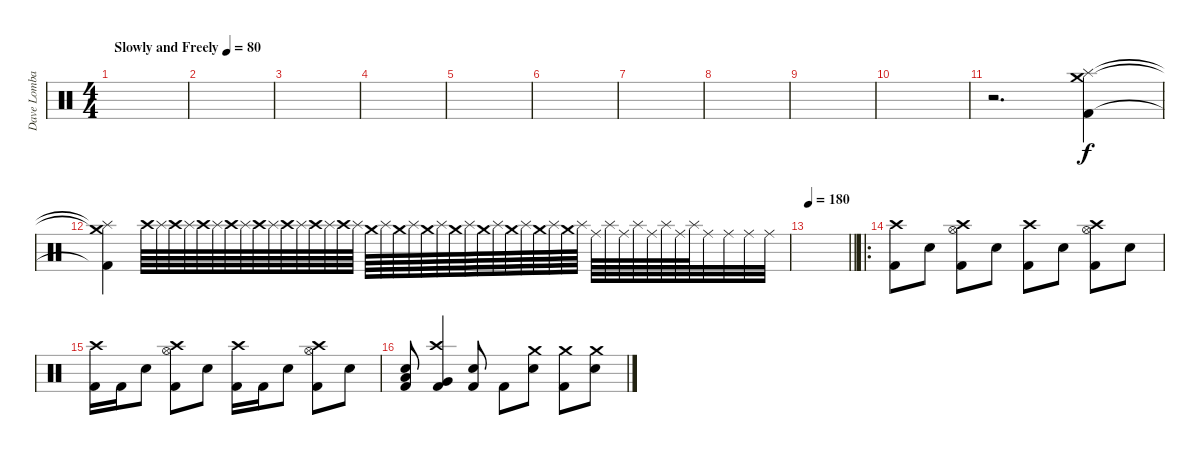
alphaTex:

\track ("Dave Lombardo" "Dave Lomba") {instrument percussion}
\staff {score}
\articulation defaults
\ts (4 4)
\tempo (80 "Slowly and Freely")
\clef neutral
\ks c
|
|
|
|
|
|
|
|
|
|
r.2{d} ("Crash medium (hit)" "Splash (hit)" "Kick (hit) 2").4 |
("Crash medium (hit)"{t} "Splash (hit)"{t} "Kick (hit) 2"{t}).4 "Crash high (hit)".64 "Splash (hit)".64 "Crash high (hit)".64 "Splash (hit)".64 "Crash high (hit)".64 "Splash (hit)".64 "Crash high (hit)".64 "Splash (hit)".64 "Crash high (hit)".64 "Splash (hit)".64 "Crash high (hit)".64 "Splash (hit)".64 "Crash high (hit)".64 "Splash (hit)".64 "Crash high (hit)".64 "Splash (hit)".64 "Crash medium (hit)".64 "Splash (hit)".64 "Crash medium (hit)".64 "Splash (hit)".64 "Crash medium (hit)".64 "Splash (hit)".64 "Crash medium (hit)".64 "Splash (hit)".64 "Crash medium (hit)".64 "Splash (hit)".64 "Crash medium (hit)".64 "Splash (hit)".64 "Crash medium (hit)".64 "Splash (hit)".64 "Crash medium (hit)".64 "Splash (hit)".64 "Ride (middle)".64 "Splash (hit)".64 "Ride (middle)".64 "Splash (hit)".64 "Ride (middle)".64 "Splash (hit)".64 "Ride (middle)".64 "Splash (hit)".64 "Ride (middle)".32 "Ride (middle)".32 "Ride (middle)".32 "Ride (middle)".32 |
\tempo 180
\barLineRight lightlight
|
\ro
("Crash high (hit)" "Kick (hit) 2").8 "Snare (hit) 2".8 ("Crash high (hit)" "Hi-Hat (open)" "Kick (hit) 2").8 "Snare (hit) 2".8 ("Crash high (hit)" "Kick (hit) 2").8 "Snare (hit) 2".8 ("Crash high (hit)" "Hi-Hat (open)" "Kick (hit) 2").8 "Snare (hit) 2".8 |
("Crash high (hit)" "Kick (hit) 2").16 "Kick (hit) 2".16 "Snare (hit) 2".8 ("Crash high (hit)" "Hi-Hat (open)" "Kick (hit) 2").8 "Snare (hit) 2".8 ("Crash high (hit)" "Kick (hit) 2").16 "Kick (hit) 2".16 "Snare (hit) 2".8 ("Crash high (hit)" "Hi-Hat (open)" "Kick (hit) 2").8 "Snare (hit) 2".8 |
("Snare (hit) 2" "Low Tom (hit)" "Kick (hit) 2").8 ("Crash high (hit)" "Very Low Tom (hit)" "Kick (hit) 2").4 ("Snare (hit) 2" "Kick (hit) 2").8 "Kick (hit) 2".8 ("Crash medium (hit)" "Snare (hit) 2").8 ("Crash medium (hit)" "Kick (hit) 2").8 ("Crash medium (hit)" "Snare (hit) 2").8
